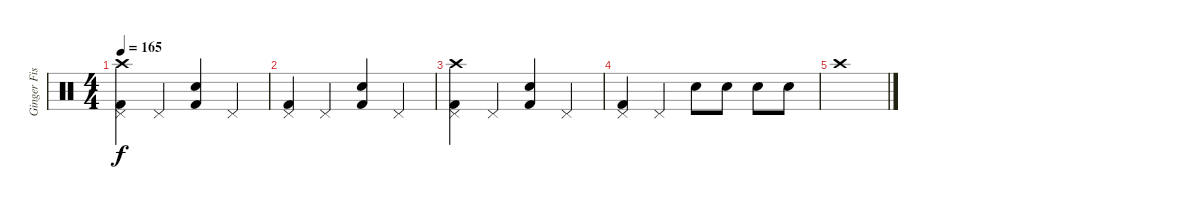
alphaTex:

\track ("Ginger Fish" "Ginger Fis") {instrument percussion}
\staff {score}
\articulation defaults
\ts (4 4)
\tempo 165
\clef neutral
\ks c
("Crash high (hit)" "Pedal Hi-Hat (hit)" "Kick (hit) 2").4{dy f} "Pedal Hi-Hat (hit)".4 ("Electric Snare (hit)" "Kick (hit) 2").4 "Pedal Hi-Hat (hit)".4 |
("Pedal Hi-Hat (hit)" "Kick (hit) 2").4 "Pedal Hi-Hat (hit)".4 ("Electric Snare (hit)" "Kick (hit) 2").4 "Pedal Hi-Hat (hit)".4 |
("Crash high (hit)" "Pedal Hi-Hat (hit)" "Kick (hit) 2").4 "Pedal Hi-Hat (hit)".4 ("Electric Snare (hit)" "Kick (hit) 2").4 "Pedal Hi-Hat (hit)".4 |
("Pedal Hi-Hat (hit)" "Kick (hit) 2").4 "Pedal Hi-Hat (hit)".4 "Electric Snare (hit)".8 "Electric Snare (hit)".8 "Electric Snare (hit)".8 "Electric Snare (hit)".8 |
"Crash high (hit)".1
